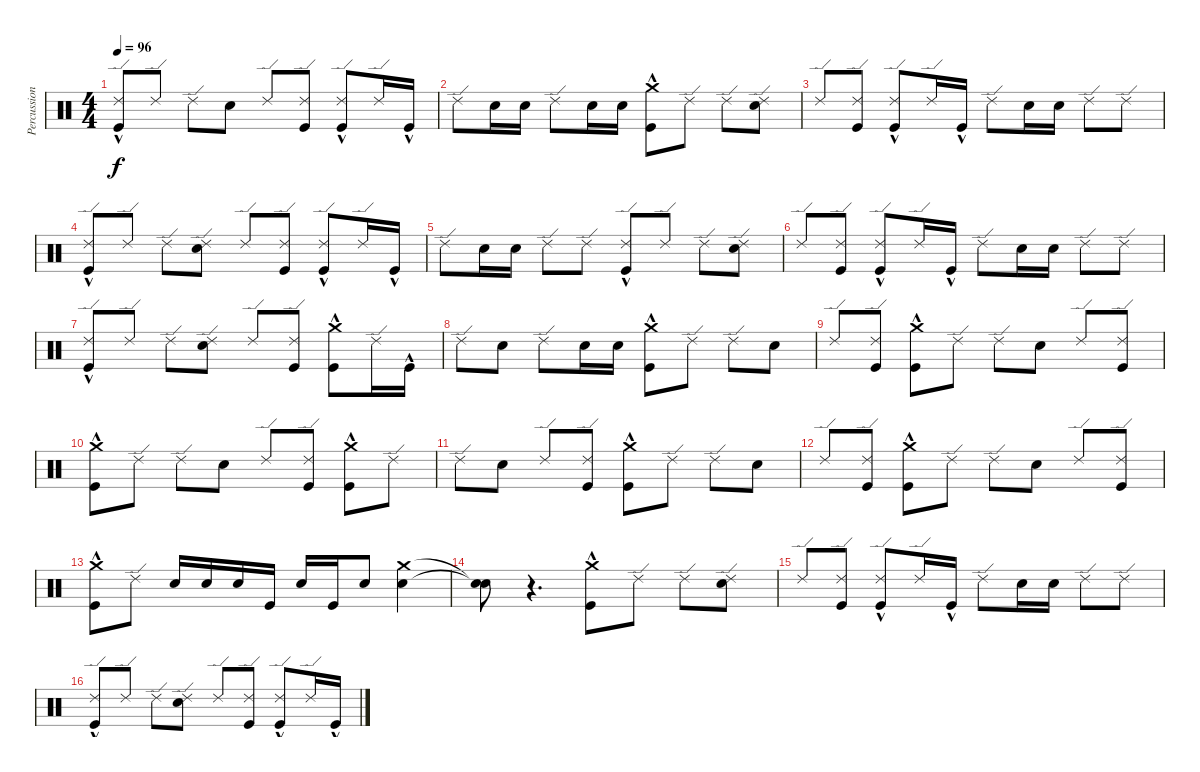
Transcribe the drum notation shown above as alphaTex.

\track ("Percussion" "Percussion") {instrument percussion}
\staff {score}
\articulation defaults
\ts (4 4)
\tempo 96
\clef neutral
\ks c
("Kick (hit)"{hac} "Ride (edge) 2").8{dy f} "Ride (edge) 2".8 "Ride (edge) 2".8 "Electric Snare (hit)".8 "Ride (edge) 2".8 ("Kick (hit)" "Ride (edge) 2").8 ("Kick (hit)"{hac} "Ride (edge) 2").8 "Ride (edge) 2".16 "Kick (hit)"{hac}.16 |
"Ride (edge) 2".8 "Electric Snare (hit)".16 "Electric Snare (hit)".16 "Ride (edge) 2".8 "Electric Snare (hit)".16 "Electric Snare (hit)".16 ("Kick (hit)"{hac} "Crash medium (hit)").8 "Ride (edge) 2".8 "Ride (edge) 2".8 ("Electric Snare (hit)" "Ride (edge) 2").8 |
"Ride (edge) 2".8 ("Kick (hit)" "Ride (edge) 2").8 ("Kick (hit)"{hac} "Ride (edge) 2").8 "Ride (edge) 2".16 "Kick (hit)"{hac}.16 "Ride (edge) 2".8 "Electric Snare (hit)".16 "Electric Snare (hit)".16 "Ride (edge) 2".8 "Ride (edge) 2".8 |
("Kick (hit)"{hac} "Ride (edge) 2").8 "Ride (edge) 2".8 "Ride (edge) 2".8 ("Electric Snare (hit)" "Ride (edge) 2").8 "Ride (edge) 2".8 ("Kick (hit)" "Ride (edge) 2").8 ("Kick (hit)"{hac} "Ride (edge) 2").8 "Ride (edge) 2".16 "Kick (hit)"{hac}.16 |
"Ride (edge) 2".8 "Electric Snare (hit)".16 "Electric Snare (hit)".16 "Ride (edge) 2".8 "Ride (edge) 2".8 ("Kick (hit)"{hac} "Ride (edge) 2").8 "Ride (edge) 2".8 "Ride (edge) 2".8 ("Electric Snare (hit)" "Ride (edge) 2").8 |
"Ride (edge) 2".8 ("Kick (hit)" "Ride (edge) 2").8 ("Kick (hit)"{hac} "Ride (edge) 2").8 "Ride (edge) 2".16 "Kick (hit)"{hac}.16 "Ride (edge) 2".8 "Electric Snare (hit)".16 "Electric Snare (hit)".16 "Ride (edge) 2".8 "Ride (edge) 2".8 |
("Kick (hit)"{hac} "Ride (edge) 2").8 "Ride (edge) 2".8 "Ride (edge) 2".8 ("Electric Snare (hit)" "Ride (edge) 2").8 "Ride (edge) 2".8 ("Kick (hit)" "Ride (edge) 2").8 ("Kick (hit)"{hac} "Crash medium (hit)").8 "Ride (edge) 2".16 "Kick (hit)"{hac}.16 |
"Ride (edge) 2".8 "Electric Snare (hit)".8 "Ride (edge) 2".8 "Electric Snare (hit)".16 "Electric Snare (hit)".16 ("Kick (hit)"{hac} "Crash medium (hit)").8 "Ride (edge) 2".8 "Ride (edge) 2".8 "Electric Snare (hit)".8 |
"Ride (edge) 2".8 ("Kick (hit)" "Ride (edge) 2").8 ("Kick (hit)"{hac} "Crash medium (hit)").8 "Ride (edge) 2".8 "Ride (edge) 2".8 "Electric Snare (hit)".8 "Ride (edge) 2".8 ("Kick (hit)" "Ride (edge) 2").8 |
("Kick (hit)"{hac} "Crash medium (hit)").8 "Ride (edge) 2".8 "Ride (edge) 2".8 "Electric Snare (hit)".8 "Ride (edge) 2".8 ("Kick (hit)" "Ride (edge) 2").8 ("Kick (hit)"{hac} "Crash medium (hit)").8 "Ride (edge) 2".8 |
"Ride (edge) 2".8 "Electric Snare (hit)".8 "Ride (edge) 2".8 ("Kick (hit)" "Ride (edge) 2").8 ("Kick (hit)"{hac} "Crash medium (hit)").8 "Ride (edge) 2".8 "Ride (edge) 2".8 "Electric Snare (hit)".8 |
"Ride (edge) 2".8 ("Kick (hit)" "Ride (edge) 2").8 ("Kick (hit)"{hac} "Crash medium (hit)").8 "Ride (edge) 2".8 "Ride (edge) 2".8 "Electric Snare (hit)".8 "Ride (edge) 2".8 ("Kick (hit)" "Ride (edge) 2").8 |
("Kick (hit)"{hac} "Crash medium (hit)").8 "Ride (edge) 2".8 "Electric Snare (hit)".16 "Electric Snare (hit)".16 "Electric Snare (hit)".16 "Kick (hit)".16 "Electric Snare (hit)".16 "Kick (hit)".16 "Electric Snare (hit)".8 ("Crash medium (hit)" "Electric Snare (hit)").4 |
("Snare (hit)"{t} "Snare (hit)"{t}).8 r.4{d} ("Kick (hit)"{hac} "Crash medium (hit)").8 "Ride (edge) 2".8 "Ride (edge) 2".8 ("Electric Snare (hit)" "Ride (edge) 2").8 |
"Ride (edge) 2".8 ("Kick (hit)" "Ride (edge) 2").8 ("Kick (hit)"{hac} "Ride (edge) 2").8 "Ride (edge) 2".16 "Kick (hit)"{hac}.16 "Ride (edge) 2".8 "Electric Snare (hit)".16 "Electric Snare (hit)".16 "Ride (edge) 2".8 "Ride (edge) 2".8 |
("Kick (hit)"{hac} "Ride (edge) 2").8 "Ride (edge) 2".8 "Ride (edge) 2".8 ("Electric Snare (hit)" "Ride (edge) 2").8 "Ride (edge) 2".8 ("Kick (hit)" "Ride (edge) 2").8 ("Kick (hit)"{hac} "Ride (edge) 2").8 "Ride (edge) 2".16 "Kick (hit)"{hac}.16
